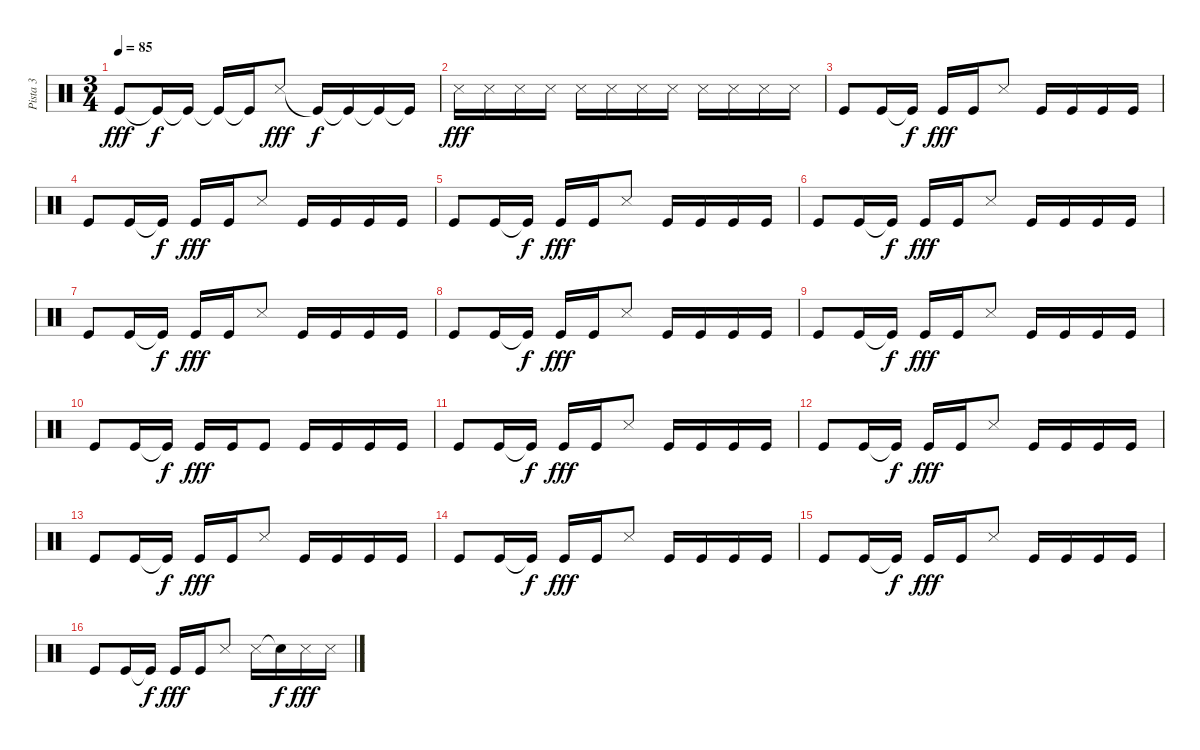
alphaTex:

\track ("Pista 3" "Pista 3") {instrument percussion}
\staff {score}
\articulation defaults
\ts (3 4)
\tempo 85
\clef neutral
\ks c "Kick (hit)".8{dy fff} "Kick (hit)"{t}.16{dy f} "Kick (hit)"{t}.16 "Kick (hit)"{t}.16 "Kick (hit)"{t}.16 "Snare (side stick) 3".8{dy fff} "Kick (hit)"{t}.16{dy f} "Kick (hit)"{t}.16 "Kick (hit)"{t}.16 "Kick (hit)"{t}.16{volume 0}
|
"Snare (side stick) 3".16{dy fff volume 16} "Snare (side stick) 3".16 "Snare (side stick) 3".16 "Snare (side stick) 3".16 "Snare (side stick) 3".16 "Snare (side stick) 3".16 "Snare (side stick) 3".16 "Snare (side stick) 3".16 "Snare (side stick) 3".16 "Snare (side stick) 3".16 "Snare (side stick) 3".16 "Snare (side stick) 3".16 |
"Kick (hit)".8 "Kick (hit)".16 "Kick (hit)"{t}.16{dy f} "Kick (hit)".16{dy fff} "Kick (hit)".16 "Snare (side stick) 3".8 "Kick (hit)".16 "Kick (hit)".16 "Kick (hit)".16 "Kick (hit)".16 |
"Kick (hit)".8 "Kick (hit)".16 "Kick (hit)"{t}.16{dy f} "Kick (hit)".16{dy fff} "Kick (hit)".16 "Snare (side stick) 3".8 "Kick (hit)".16 "Kick (hit)".16 "Kick (hit)".16 "Kick (hit)".16 |
"Kick (hit)".8 "Kick (hit)".16 "Kick (hit)"{t}.16{dy f} "Kick (hit)".16{dy fff} "Kick (hit)".16 "Snare (side stick) 3".8 "Kick (hit)".16 "Kick (hit)".16 "Kick (hit)".16 "Kick (hit)".16 |
"Kick (hit)".8 "Kick (hit)".16 "Kick (hit)"{t}.16{dy f} "Kick (hit)".16{dy fff} "Kick (hit)".16 "Snare (side stick) 3".8 "Kick (hit)".16 "Kick (hit)".16 "Kick (hit)".16 "Kick (hit)".16 |
"Kick (hit)".8 "Kick (hit)".16 "Kick (hit)"{t}.16{dy f} "Kick (hit)".16{dy fff} "Kick (hit)".16 "Snare (side stick) 3".8 "Kick (hit)".16 "Kick (hit)".16 "Kick (hit)".16 "Kick (hit)".16 |
"Kick (hit)".8 "Kick (hit)".16 "Kick (hit)"{t}.16{dy f} "Kick (hit)".16{dy fff} "Kick (hit)".16 "Snare (side stick) 3".8 "Kick (hit)".16 "Kick (hit)".16 "Kick (hit)".16 "Kick (hit)".16 |
"Kick (hit)".8 "Kick (hit)".16 "Kick (hit)"{t}.16{dy f} "Kick (hit)".16{dy fff} "Kick (hit)".16 "Snare (side stick) 3".8 "Kick (hit)".16 "Kick (hit)".16 "Kick (hit)".16 "Kick (hit)".16 |
"Kick (hit)".8 "Kick (hit)".16 "Kick (hit)"{t}.16{dy f} "Kick (hit)".16{dy fff} "Kick (hit)".16 "Kick (hit)".8 "Kick (hit)".16 "Kick (hit)".16 "Kick (hit)".16 "Kick (hit)".16 |
"Kick (hit)".8 "Kick (hit)".16 "Kick (hit)"{t}.16{dy f} "Kick (hit)".16{dy fff} "Kick (hit)".16 "Snare (side stick) 3".8 "Kick (hit)".16 "Kick (hit)".16 "Kick (hit)".16 "Kick (hit)".16 |
"Kick (hit)".8 "Kick (hit)".16 "Kick (hit)"{t}.16{dy f} "Kick (hit)".16{dy fff} "Kick (hit)".16 "Snare (side stick) 3".8 "Kick (hit)".16 "Kick (hit)".16 "Kick (hit)".16 "Kick (hit)".16 |
"Kick (hit)".8 "Kick (hit)".16 "Kick (hit)"{t}.16{dy f} "Kick (hit)".16{dy fff} "Kick (hit)".16 "Snare (side stick) 3".8 "Kick (hit)".16 "Kick (hit)".16 "Kick (hit)".16 "Kick (hit)".16 |
"Kick (hit)".8 "Kick (hit)".16 "Kick (hit)"{t}.16{dy f} "Kick (hit)".16{dy fff} "Kick (hit)".16 "Snare (side stick) 3".8 "Kick (hit)".16 "Kick (hit)".16 "Kick (hit)".16 "Kick (hit)".16 |
"Kick (hit)".8 "Kick (hit)".16 "Kick (hit)"{t}.16{dy f} "Kick (hit)".16{dy fff} "Kick (hit)".16 "Snare (side stick) 3".8 "Kick (hit)".16 "Kick (hit)".16 "Kick (hit)".16 "Kick (hit)".16 |
"Kick (hit)".8 "Kick (hit)".16 "Kick (hit)"{t}.16{dy f} "Kick (hit)".16{dy fff} "Kick (hit)".16 "Snare (side stick) 3".8 "Snare (side stick) 3".16 "Snare (hit)"{t}.16{dy f} "Snare (side stick) 3".16{dy fff} "Snare (side stick) 3".16
